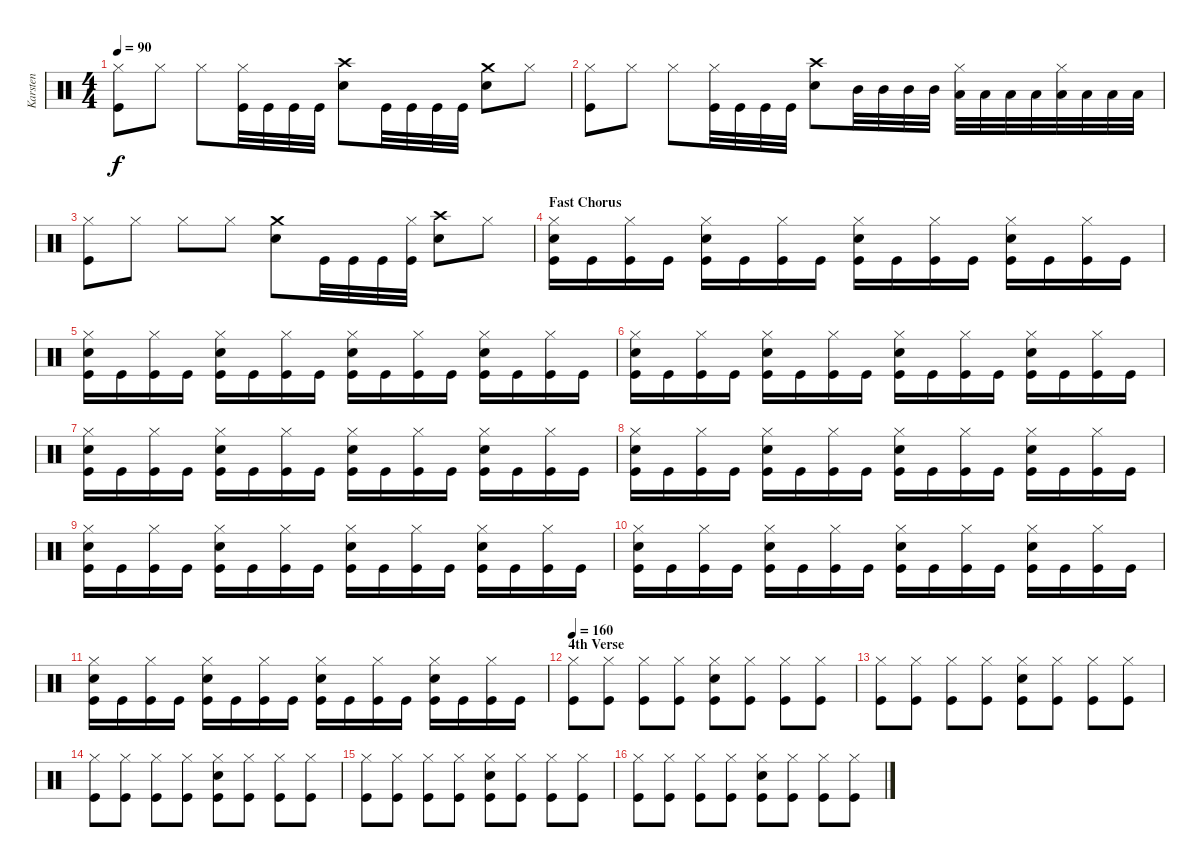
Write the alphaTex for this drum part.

\track ("Karsten" "Karsten") {instrument percussion}
\staff {score}
\articulation defaults
\ts (4 4)
\tempo 90
\clef neutral
\ks c
("Hi-Hat (closed)" "Kick (hit)").8{dy f} "Hi-Hat (closed)".8 "Hi-Hat (closed)".8 ("Hi-Hat (closed)" "Kick (hit)").32 "Kick (hit)".32 "Kick (hit)".32 "Kick (hit)".32 ("Crash high (hit)" "Snare (hit) 2").8 "Kick (hit)".32 "Kick (hit)".32 "Kick (hit)".32 "Kick (hit)".32 ("Crash medium (hit)" "Snare (hit) 2").8 "Hi-Hat (closed)".8 |
("Hi-Hat (closed)" "Kick (hit)").8 "Hi-Hat (closed)".8 "Hi-Hat (closed)".8 ("Hi-Hat (closed)" "Kick (hit)").32 "Kick (hit)".32 "Kick (hit)".32 "Kick (hit)".32 ("Crash high (hit)" "Snare (hit) 2").8 "Mid Tom (hit)".32 "Mid Tom (hit)".32 "Mid Tom (hit)".32 "Mid Tom (hit)".32 ("Hi-Hat (closed)" "Low Tom (hit)").32 "Low Tom (hit)".32 "Low Tom (hit)".32 "Low Tom (hit)".32 ("Hi-Hat (closed)" "Low Floor Tom (hit)").32 "Low Floor Tom (hit)".32 "Low Floor Tom (hit)".32 "Low Floor Tom (hit)".32 |
("Hi-Hat (closed)" "Kick (hit)").8 "Hi-Hat (closed)".8 "Hi-Hat (closed)".8 "Hi-Hat (closed)".8 ("Crash medium (hit)" "Snare (hit) 2").8 "Kick (hit)".32 "Kick (hit)".32 "Kick (hit)".32 ("Hi-Hat (closed)" "Kick (hit)").32 ("Crash high (hit)" "Snare (hit) 2").8 "Hi-Hat (closed)".8 |
\section ("" "Fast Chorus")
("Hi-Hat (closed)" "Snare (hit) 2" "Kick (hit)").16 "Kick (hit)".16 ("Hi-Hat (closed)" "Kick (hit)").16 "Kick (hit)".16 ("Hi-Hat (closed)" "Snare (hit) 2" "Kick (hit)").16 "Kick (hit)".16 ("Hi-Hat (closed)" "Kick (hit)").16 "Kick (hit)".16 ("Hi-Hat (closed)" "Snare (hit) 2" "Kick (hit)").16 "Kick (hit)".16 ("Hi-Hat (closed)" "Kick (hit)").16 "Kick (hit)".16 ("Hi-Hat (closed)" "Snare (hit) 2" "Kick (hit)").16 "Kick (hit)".16 ("Hi-Hat (closed)" "Kick (hit)").16 "Kick (hit)".16 |
("Hi-Hat (closed)" "Snare (hit) 2" "Kick (hit)").16 "Kick (hit)".16 ("Hi-Hat (closed)" "Kick (hit)").16 "Kick (hit)".16 ("Hi-Hat (closed)" "Snare (hit) 2" "Kick (hit)").16 "Kick (hit)".16 ("Hi-Hat (closed)" "Kick (hit)").16 "Kick (hit)".16 ("Hi-Hat (closed)" "Snare (hit) 2" "Kick (hit)").16 "Kick (hit)".16 ("Hi-Hat (closed)" "Kick (hit)").16 "Kick (hit)".16 ("Hi-Hat (closed)" "Snare (hit) 2" "Kick (hit)").16 "Kick (hit)".16 ("Hi-Hat (closed)" "Kick (hit)").16 "Kick (hit)".16 |
("Hi-Hat (closed)" "Snare (hit) 2" "Kick (hit)").16 "Kick (hit)".16 ("Hi-Hat (closed)" "Kick (hit)").16 "Kick (hit)".16 ("Hi-Hat (closed)" "Snare (hit) 2" "Kick (hit)").16 "Kick (hit)".16 ("Hi-Hat (closed)" "Kick (hit)").16 "Kick (hit)".16 ("Hi-Hat (closed)" "Snare (hit) 2" "Kick (hit)").16 "Kick (hit)".16 ("Hi-Hat (closed)" "Kick (hit)").16 "Kick (hit)".16 ("Hi-Hat (closed)" "Snare (hit) 2" "Kick (hit)").16 "Kick (hit)".16 ("Hi-Hat (closed)" "Kick (hit)").16 "Kick (hit)".16 |
("Hi-Hat (closed)" "Snare (hit) 2" "Kick (hit)").16 "Kick (hit)".16 ("Hi-Hat (closed)" "Kick (hit)").16 "Kick (hit)".16 ("Hi-Hat (closed)" "Snare (hit) 2" "Kick (hit)").16 "Kick (hit)".16 ("Hi-Hat (closed)" "Kick (hit)").16 "Kick (hit)".16 ("Hi-Hat (closed)" "Snare (hit) 2" "Kick (hit)").16 "Kick (hit)".16 ("Hi-Hat (closed)" "Kick (hit)").16 "Kick (hit)".16 ("Hi-Hat (closed)" "Snare (hit) 2" "Kick (hit)").16 "Kick (hit)".16 ("Hi-Hat (closed)" "Kick (hit)").16 "Kick (hit)".16 |
("Hi-Hat (closed)" "Snare (hit) 2" "Kick (hit)").16 "Kick (hit)".16 ("Hi-Hat (closed)" "Kick (hit)").16 "Kick (hit)".16 ("Hi-Hat (closed)" "Snare (hit) 2" "Kick (hit)").16 "Kick (hit)".16 ("Hi-Hat (closed)" "Kick (hit)").16 "Kick (hit)".16 ("Hi-Hat (closed)" "Snare (hit) 2" "Kick (hit)").16 "Kick (hit)".16 ("Hi-Hat (closed)" "Kick (hit)").16 "Kick (hit)".16 ("Hi-Hat (closed)" "Snare (hit) 2" "Kick (hit)").16 "Kick (hit)".16 ("Hi-Hat (closed)" "Kick (hit)").16 "Kick (hit)".16 |
("Hi-Hat (closed)" "Snare (hit) 2" "Kick (hit)").16 "Kick (hit)".16 ("Hi-Hat (closed)" "Kick (hit)").16 "Kick (hit)".16 ("Hi-Hat (closed)" "Snare (hit) 2" "Kick (hit)").16 "Kick (hit)".16 ("Hi-Hat (closed)" "Kick (hit)").16 "Kick (hit)".16 ("Hi-Hat (closed)" "Snare (hit) 2" "Kick (hit)").16 "Kick (hit)".16 ("Hi-Hat (closed)" "Kick (hit)").16 "Kick (hit)".16 ("Hi-Hat (closed)" "Snare (hit) 2" "Kick (hit)").16 "Kick (hit)".16 ("Hi-Hat (closed)" "Kick (hit)").16 "Kick (hit)".16 |
("Hi-Hat (closed)" "Snare (hit) 2" "Kick (hit)").16 "Kick (hit)".16 ("Hi-Hat (closed)" "Kick (hit)").16 "Kick (hit)".16 ("Hi-Hat (closed)" "Snare (hit) 2" "Kick (hit)").16 "Kick (hit)".16 ("Hi-Hat (closed)" "Kick (hit)").16 "Kick (hit)".16 ("Hi-Hat (closed)" "Snare (hit) 2" "Kick (hit)").16 "Kick (hit)".16 ("Hi-Hat (closed)" "Kick (hit)").16 "Kick (hit)".16 ("Hi-Hat (closed)" "Snare (hit) 2" "Kick (hit)").16 "Kick (hit)".16 ("Hi-Hat (closed)" "Kick (hit)").16 "Kick (hit)".16 |
("Hi-Hat (closed)" "Snare (hit) 2" "Kick (hit)").16 "Kick (hit)".16 ("Hi-Hat (closed)" "Kick (hit)").16 "Kick (hit)".16 ("Hi-Hat (closed)" "Snare (hit) 2" "Kick (hit)").16 "Kick (hit)".16 ("Hi-Hat (closed)" "Kick (hit)").16 "Kick (hit)".16 ("Hi-Hat (closed)" "Snare (hit) 2" "Kick (hit)").16 "Kick (hit)".16 ("Hi-Hat (closed)" "Kick (hit)").16 "Kick (hit)".16 ("Hi-Hat (closed)" "Snare (hit) 2" "Kick (hit)").16 "Kick (hit)".16 ("Hi-Hat (closed)" "Kick (hit)").16 "Kick (hit)".16 |
\section ("" "4th Verse")
\tempo 160
("Hi-Hat (closed)" "Kick (hit)").8 ("Hi-Hat (closed)" "Kick (hit)").8 ("Hi-Hat (closed)" "Kick (hit)").8 ("Hi-Hat (closed)" "Kick (hit)").8 ("Hi-Hat (closed)" "Snare (hit) 2" "Kick (hit)").8 ("Hi-Hat (closed)" "Kick (hit)").8 ("Hi-Hat (closed)" "Kick (hit)").8 ("Hi-Hat (closed)" "Kick (hit)").8 |
("Hi-Hat (closed)" "Kick (hit)").8 ("Hi-Hat (closed)" "Kick (hit)").8 ("Hi-Hat (closed)" "Kick (hit)").8 ("Hi-Hat (closed)" "Kick (hit)").8 ("Hi-Hat (closed)" "Snare (hit) 2" "Kick (hit)").8 ("Hi-Hat (closed)" "Kick (hit)").8 ("Hi-Hat (closed)" "Kick (hit)").8 ("Hi-Hat (closed)" "Kick (hit)").8 |
("Hi-Hat (closed)" "Kick (hit)").8 ("Hi-Hat (closed)" "Kick (hit)").8 ("Hi-Hat (closed)" "Kick (hit)").8 ("Hi-Hat (closed)" "Kick (hit)").8 ("Hi-Hat (closed)" "Snare (hit) 2" "Kick (hit)").8 ("Hi-Hat (closed)" "Kick (hit)").8 ("Hi-Hat (closed)" "Kick (hit)").8 ("Hi-Hat (closed)" "Kick (hit)").8 |
("Hi-Hat (closed)" "Kick (hit)").8 ("Hi-Hat (closed)" "Kick (hit)").8 ("Hi-Hat (closed)" "Kick (hit)").8 ("Hi-Hat (closed)" "Kick (hit)").8 ("Hi-Hat (closed)" "Snare (hit) 2" "Kick (hit)").8 ("Hi-Hat (closed)" "Kick (hit)").8 ("Hi-Hat (closed)" "Kick (hit)").8 ("Hi-Hat (closed)" "Kick (hit)").8 |
("Hi-Hat (closed)" "Kick (hit)").8 ("Hi-Hat (closed)" "Kick (hit)").8 ("Hi-Hat (closed)" "Kick (hit)").8 ("Hi-Hat (closed)" "Kick (hit)").8 ("Hi-Hat (closed)" "Snare (hit) 2" "Kick (hit)").8 ("Hi-Hat (closed)" "Kick (hit)").8 ("Hi-Hat (closed)" "Kick (hit)").8 ("Hi-Hat (closed)" "Kick (hit)").8
